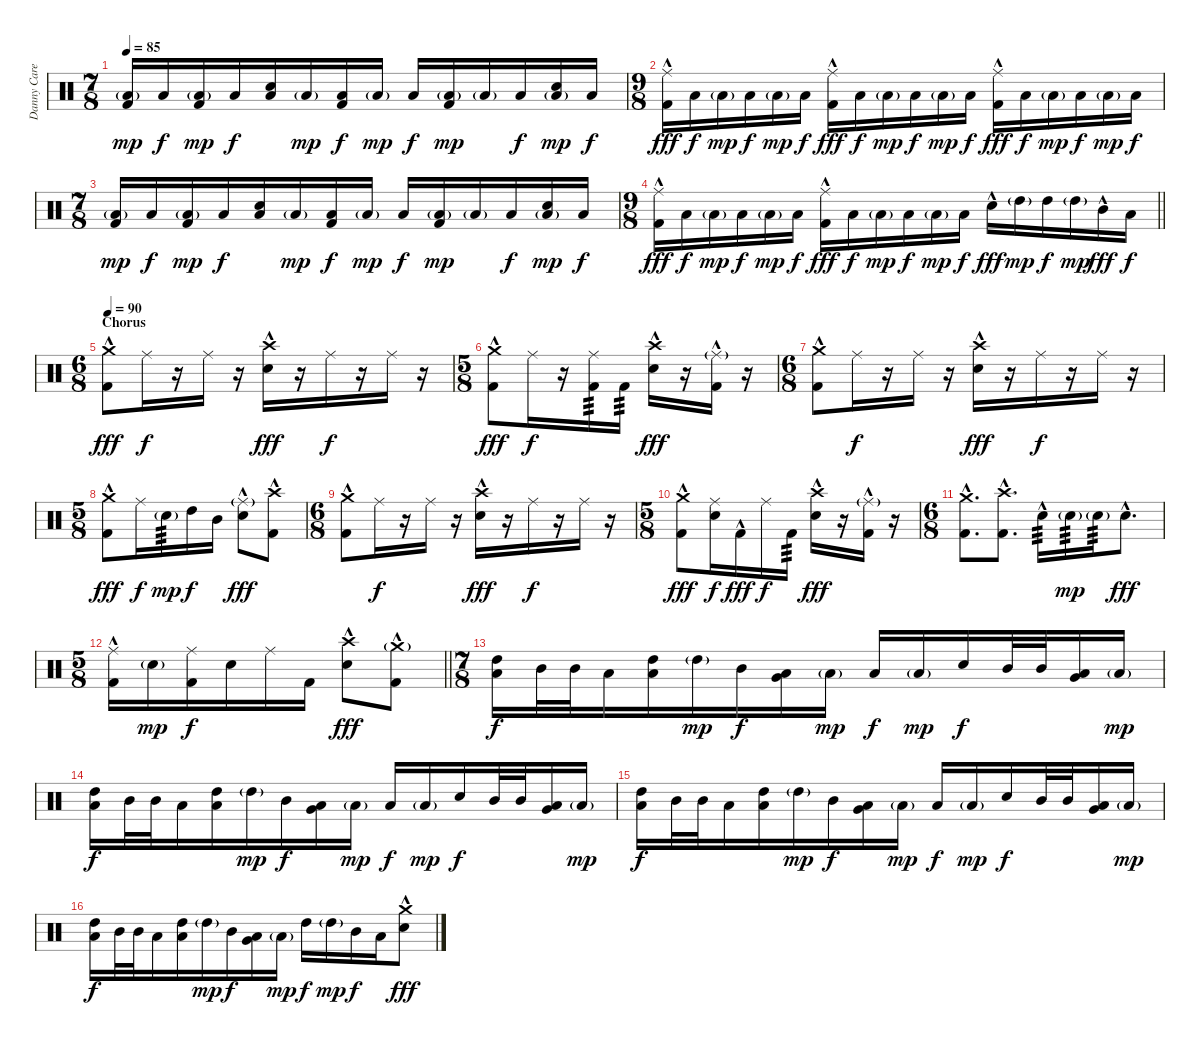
\track ("Danny Carey" "Danny Care") {instrument percussion}
\staff {score}
\articulation defaults
\ts (7 8)
\tempo 85
\clef neutral
\ks c
("Low Floor Tom (hit)"{g} "Kick (hit) 2").16{dy mp} "Low Floor Tom (hit)".16{dy f} ("Low Floor Tom (hit)"{g} "Kick (hit) 2").16{dy mp} "Low Floor Tom (hit)".16{dy f} ("Low Floor Tom (hit)" "Electric Snare (hit)").16 "Low Floor Tom (hit)"{g}.16{dy mp} ("Low Floor Tom (hit)" "Kick (hit) 2").16{dy f} "Low Floor Tom (hit)"{g}.16{dy mp} "Low Floor Tom (hit)".16{dy f} ("Low Floor Tom (hit)"{g} "Kick (hit) 2").16{dy mp} "Low Floor Tom (hit)"{g}.16 "Low Floor Tom (hit)".16{dy f} ("Low Floor Tom (hit)"{g} "Electric Snare (hit)").16{dy mp} "Low Floor Tom (hit)".16{dy f} |
\ts (9 8)
("Ride (middle)" "Kick (hit) 2"{hac}).16{dy fff} "Low Floor Tom (hit)".16{dy f} "Low Floor Tom (hit)"{g}.16{dy mp} "Low Floor Tom (hit)".16{dy f} "Low Floor Tom (hit)"{g}.16{dy mp} "Low Floor Tom (hit)".16{dy f} ("Ride (middle)" "Kick (hit) 2"{hac}).16{dy fff} "Low Floor Tom (hit)".16{dy f} "Low Floor Tom (hit)"{g}.16{dy mp} "Low Floor Tom (hit)".16{dy f} "Low Floor Tom (hit)"{g}.16{dy mp} "Low Floor Tom (hit)".16{dy f} ("Ride (middle)" "Kick (hit) 2"{hac}).16{dy fff} "Low Floor Tom (hit)".16{dy f} "Low Floor Tom (hit)"{g}.16{dy mp} "Low Floor Tom (hit)".16{dy f} "Low Floor Tom (hit)"{g}.16{dy mp} "Low Floor Tom (hit)".16{dy f} |
\ts (7 8)
("Low Floor Tom (hit)"{g} "Kick (hit) 2").16{dy mp} "Low Floor Tom (hit)".16{dy f} ("Low Floor Tom (hit)"{g} "Kick (hit) 2").16{dy mp} "Low Floor Tom (hit)".16{dy f} ("Low Floor Tom (hit)" "Electric Snare (hit)").16 "Low Floor Tom (hit)"{g}.16{dy mp} ("Low Floor Tom (hit)" "Kick (hit) 2").16{dy f} "Low Floor Tom (hit)"{g}.16{dy mp} "Low Floor Tom (hit)".16{dy f} ("Low Floor Tom (hit)"{g} "Kick (hit) 2").16{dy mp} "Low Floor Tom (hit)"{g}.16 "Low Floor Tom (hit)".16{dy f} ("Low Floor Tom (hit)"{g} "Electric Snare (hit)").16{dy mp} "Low Floor Tom (hit)".16{dy f} |
\ts (9 8)
\barLineRight lightlight
("Ride (middle)" "Kick (hit) 2"{hac}).16{dy fff} "Low Floor Tom (hit)".16{dy f} "Low Floor Tom (hit)"{g}.16{dy mp} "Low Floor Tom (hit)".16{dy f} "Low Floor Tom (hit)"{g}.16{dy mp} "Low Floor Tom (hit)".16{dy f} ("Ride (middle)" "Kick (hit) 2"{hac}).16{dy fff} "Low Floor Tom (hit)".16{dy f} "Low Floor Tom (hit)"{g}.16{dy mp} "Low Floor Tom (hit)".16{dy f} "Low Floor Tom (hit)"{g}.16{dy mp} "Low Floor Tom (hit)".16{dy f} "Electric Snare (hit)"{hac}.16{dy fff} "High Tom (hit)"{g}.16{dy mp} "High Tom (hit)".16{dy f} "High Tom (hit)"{g}.16{dy mp} "Mid Tom (hit)"{hac}.16{dy fff} "Low Tom (hit)".16{dy f} |
\ts (6 8)
\section ("" "Chorus")
\tempo 90
("Crash medium (hit)" "Kick (hit) 2"{hac}).8{dy fff} "Ride (middle)".16{dy f} r.16 "Ride (middle)".16 r.16 ("Crash high (hit)" "Electric Snare (hit)"{hac}).16{dy fff} r.16 "Ride (middle)".16{dy f} r.16 "Ride (middle)".16 r.16 |
\ts (5 8)
("Crash medium (hit)" "Kick (hit) 2"{hac}).8{dy fff} "Ride (middle)".16{dy f} r.16 ("Ride (middle)" "Kick (hit) 2").16{tp 3} "Kick (hit) 2".16{tp 3} ("Crash high (hit)" "Electric Snare (hit)"{hac}).16{dy fff} r.16 ("Ride (middle)"{g} "Kick (hit) 2"{hac}).16 r.16 |
\ts (6 8)
("Crash medium (hit)" "Kick (hit) 2"{hac}).8 "Ride (middle)".16{dy f} r.16 "Ride (middle)".16 r.16 ("Crash high (hit)" "Electric Snare (hit)"{hac}).16{dy fff} r.16 "Ride (middle)".16{dy f} r.16 "Ride (middle)".16 r.16 |
\ts (5 8)
("Crash medium (hit)" "Kick (hit) 2"{hac}).8{dy fff} "Ride (middle)".16{dy f} "Electric Snare (hit)"{g}.16{tp 3 dy mp} "High Tom (hit)".16{dy f} "Mid Tom (hit)".16 ("Ride (middle)"{g} "Electric Snare (hit)"{hac}).8{dy fff} ("Crash high (hit)" "Kick (hit) 2"{hac}).8 |
\ts (6 8)
("Crash medium (hit)" "Kick (hit) 2"{hac}).8 "Ride (middle)".16{dy f} r.16 "Ride (middle)".16 r.16 ("Crash high (hit)" "Electric Snare (hit)"{hac}).16{dy fff} r.16 "Ride (middle)".16{dy f} r.16 "Ride (middle)".16 r.16 |
\ts (5 8)
("Crash medium (hit)" "Kick (hit) 2"{hac}).8{dy fff} ("Ride (middle)" "Electric Snare (hit)").16{dy f} "Kick (hit) 2"{hac}.16{dy fff} "Ride (middle)".16{dy f} "Kick (hit) 2".16{tp 3} ("Crash high (hit)" "Electric Snare (hit)"{hac}).16{dy fff} r.16 ("Ride (middle)"{g} "Kick (hit) 2"{hac}).16 r.16 |
\ts (6 8)
("Crash medium (hit)" "Kick (hit) 2"{hac}).8{d} ("Crash high (hit)" "Kick (hit) 2"{hac}).8{d} "Electric Snare (hit)"{hac}.16{tp 3} "Electric Snare (hit)"{g}.16{tp 3 dy mp} "Electric Snare (hit)"{g}.16{tp 3} "Electric Snare (hit)"{hac}.8{d dy fff} |
\ts (5 8)
\barLineRight lightlight
("Ride (middle)" "Kick (hit) 2"{hac}).16 "Electric Snare (hit)"{g}.16{dy mp} ("Ride (middle)" "Kick (hit) 2").16{dy f} "Electric Snare (hit)".16 "Ride (middle)".16 "Kick (hit) 2".16 ("Crash high (hit)" "Electric Snare (hit)"{hac}).8{dy fff} ("Crash medium (hit)"{g} "Kick (hit) 2"{hac}).8 |
\ts (7 8)
\section ("" "")
("High Tom (hit)" "Low Tom (hit)").16{dy f} "Mid Tom (hit)".32 "Mid Tom (hit)".32 "Low Tom (hit)".16 ("High Tom (hit)" "Low Tom (hit)").16 "High Tom (hit)"{g}.16{dy mp} "Mid Tom (hit)".16{dy f} ("Low Tom (hit)" "Very Low Tom (hit)").16 "Low Tom (hit)"{g}.16{dy mp} "Low Tom (hit)".16{dy f} "Low Tom (hit)"{g}.16{dy mp} "Electric Snare (hit)".16{dy f} "Mid Tom (hit)".32 "Mid Tom (hit)".32 ("Low Tom (hit)" "Very Low Tom (hit)").16 "Low Tom (hit)"{g}.16{dy mp} |
("High Tom (hit)" "Low Tom (hit)").16{dy f} "Mid Tom (hit)".32 "Mid Tom (hit)".32 "Low Tom (hit)".16 ("High Tom (hit)" "Low Tom (hit)").16 "High Tom (hit)"{g}.16{dy mp} "Mid Tom (hit)".16{dy f} ("Low Tom (hit)" "Very Low Tom (hit)").16 "Low Tom (hit)"{g}.16{dy mp} "Low Tom (hit)".16{dy f} "Low Tom (hit)"{g}.16{dy mp} "Electric Snare (hit)".16{dy f} "Mid Tom (hit)".32 "Mid Tom (hit)".32 ("Low Tom (hit)" "Very Low Tom (hit)").16 "Low Tom (hit)"{g}.16{dy mp} |
("High Tom (hit)" "Low Tom (hit)").16{dy f} "Mid Tom (hit)".32 "Mid Tom (hit)".32 "Low Tom (hit)".16 ("High Tom (hit)" "Low Tom (hit)").16 "High Tom (hit)"{g}.16{dy mp} "Mid Tom (hit)".16{dy f} ("Low Tom (hit)" "Very Low Tom (hit)").16 "Low Tom (hit)"{g}.16{dy mp} "Low Tom (hit)".16{dy f} "Low Tom (hit)"{g}.16{dy mp} "Electric Snare (hit)".16{dy f} "Mid Tom (hit)".32 "Mid Tom (hit)".32 ("Low Tom (hit)" "Very Low Tom (hit)").16 "Low Tom (hit)"{g}.16{dy mp} |
("High Tom (hit)" "Low Tom (hit)").16{dy f} "Mid Tom (hit)".32 "Mid Tom (hit)".32 "Low Tom (hit)".16 ("High Tom (hit)" "Low Tom (hit)").16 "High Tom (hit)"{g}.16{dy mp} "Mid Tom (hit)".16{dy f} ("Low Tom (hit)" "Very Low Tom (hit)").16 "Low Tom (hit)"{g}.16{dy mp} "High Tom (hit)".16{dy f} "High Tom (hit)"{g}.16{dy mp} "Mid Tom (hit)".16{dy f} "Low Tom (hit)".16 ("Crash medium (hit)" "Electric Snare (hit)"{hac}).8{dy fff}
